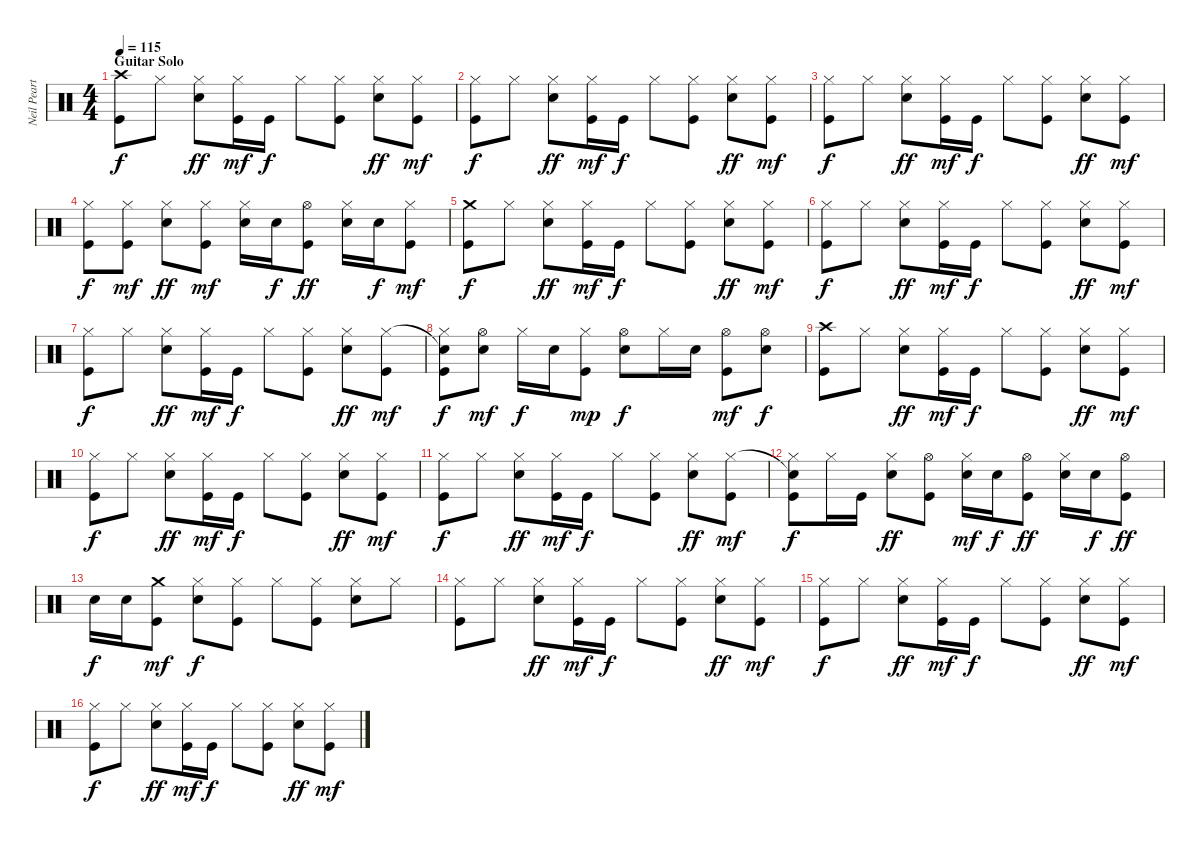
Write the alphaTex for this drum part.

\track ("Neil Peart - Drums" "Neil Peart") {instrument percussion}
\staff {score}
\articulation defaults
\ts (4 4)
\section ("" "Guitar Solo")
\tempo 115
\clef neutral
\ks c
("Crash high (hit)" "Kick (hit)").8{dy f} "Hi-Hat (closed)".8 ("Hi-Hat (closed)" "Electric Snare (hit)").8{dy ff} ("Hi-Hat (closed)" "Kick (hit)").16{dy mf} "Kick (hit)".16{dy f} "Hi-Hat (closed)".8 ("Hi-Hat (closed)" "Kick (hit)").8 ("Hi-Hat (closed)" "Electric Snare (hit)").8{dy ff} ("Hi-Hat (closed)" "Kick (hit)").8{dy mf} |
("Hi-Hat (closed)" "Kick (hit)").8{dy f} "Hi-Hat (closed)".8 ("Hi-Hat (closed)" "Electric Snare (hit)").8{dy ff} ("Hi-Hat (closed)" "Kick (hit)").16{dy mf} "Kick (hit)".16{dy f} "Hi-Hat (closed)".8 ("Hi-Hat (closed)" "Kick (hit)").8 ("Hi-Hat (closed)" "Electric Snare (hit)").8{dy ff} ("Hi-Hat (closed)" "Kick (hit)").8{dy mf} |
("Hi-Hat (closed)" "Kick (hit)").8{dy f} "Hi-Hat (closed)".8 ("Hi-Hat (closed)" "Electric Snare (hit)").8{dy ff} ("Hi-Hat (closed)" "Kick (hit)").16{dy mf} "Kick (hit)".16{dy f} "Hi-Hat (closed)".8 ("Hi-Hat (closed)" "Kick (hit)").8 ("Hi-Hat (closed)" "Electric Snare (hit)").8{dy ff} ("Hi-Hat (closed)" "Kick (hit)").8{dy mf} |
("Hi-Hat (closed)" "Kick (hit)").8{dy f} ("Hi-Hat (closed)" "Kick (hit)").8{dy mf} ("Hi-Hat (closed)" "Electric Snare (hit)").8{dy ff} ("Hi-Hat (closed)" "Kick (hit)").8{dy mf} ("Hi-Hat (closed)" "Electric Snare (hit)").16 "Electric Snare (hit)".16{dy f} ("Hi-Hat (open)" "Kick (hit)").8{dy ff} ("Hi-Hat (closed)" "Electric Snare (hit)").16 "Electric Snare (hit)".16{dy f} ("Hi-Hat (closed)" "Kick (hit)").8{dy mf} |
("Crash medium (hit)" "Kick (hit)").8{dy f} "Hi-Hat (closed)".8 ("Hi-Hat (closed)" "Electric Snare (hit)").8{dy ff} ("Hi-Hat (closed)" "Kick (hit)").16{dy mf} "Kick (hit)".16{dy f} "Hi-Hat (closed)".8 ("Hi-Hat (closed)" "Kick (hit)").8 ("Hi-Hat (closed)" "Electric Snare (hit)").8{dy ff} ("Hi-Hat (closed)" "Kick (hit)").8{dy mf} |
("Hi-Hat (closed)" "Kick (hit)").8{dy f} "Hi-Hat (closed)".8 ("Hi-Hat (closed)" "Electric Snare (hit)").8{dy ff} ("Hi-Hat (closed)" "Kick (hit)").16{dy mf} "Kick (hit)".16{dy f} "Hi-Hat (closed)".8 ("Hi-Hat (closed)" "Kick (hit)").8 ("Hi-Hat (closed)" "Electric Snare (hit)").8{dy ff} ("Hi-Hat (closed)" "Kick (hit)").8{dy mf} |
("Hi-Hat (closed)" "Kick (hit)").8{dy f} "Hi-Hat (closed)".8 ("Hi-Hat (closed)" "Electric Snare (hit)").8{dy ff} ("Hi-Hat (closed)" "Kick (hit)").16{dy mf} "Kick (hit)".16{dy f} "Hi-Hat (closed)".8 ("Hi-Hat (closed)" "Kick (hit)").8 ("Hi-Hat (closed)" "Electric Snare (hit)").8{dy ff} ("Hi-Hat (closed)" "Kick (hit)").8{dy mf} |
("Snare (hit)"{t} "Hi-Hat (closed)" "Kick (hit)").8{dy f} ("Hi-Hat (open)" "Electric Snare (hit)").8{dy mf} "Hi-Hat (closed)".16{dy f} "Electric Snare (hit)".16 ("Hi-Hat (closed)" "Kick (hit)").8{dy mp} ("Hi-Hat (open)" "Electric Snare (hit)").8{dy f} "Hi-Hat (closed)".16 "Electric Snare (hit)".16 ("Hi-Hat (open)" "Kick (hit)").8{dy mf} ("Hi-Hat (open)" "Electric Snare (hit)").8{dy f} |
("Crash high (hit)" "Kick (hit)").8 "Hi-Hat (closed)".8 ("Hi-Hat (closed)" "Electric Snare (hit)").8{dy ff} ("Hi-Hat (closed)" "Kick (hit)").16{dy mf} "Kick (hit)".16{dy f} "Hi-Hat (closed)".8 ("Hi-Hat (closed)" "Kick (hit)").8 ("Hi-Hat (closed)" "Electric Snare (hit)").8{dy ff} ("Hi-Hat (closed)" "Kick (hit)").8{dy mf} |
("Hi-Hat (closed)" "Kick (hit)").8{dy f} "Hi-Hat (closed)".8 ("Hi-Hat (closed)" "Electric Snare (hit)").8{dy ff} ("Hi-Hat (closed)" "Kick (hit)").16{dy mf} "Kick (hit)".16{dy f} "Hi-Hat (closed)".8 ("Hi-Hat (closed)" "Kick (hit)").8 ("Hi-Hat (closed)" "Electric Snare (hit)").8{dy ff} ("Hi-Hat (closed)" "Kick (hit)").8{dy mf} |
("Hi-Hat (closed)" "Kick (hit)").8{dy f} "Hi-Hat (closed)".8 ("Hi-Hat (closed)" "Electric Snare (hit)").8{dy ff} ("Hi-Hat (closed)" "Kick (hit)").16{dy mf} "Kick (hit)".16{dy f} "Hi-Hat (closed)".8 ("Hi-Hat (closed)" "Kick (hit)").8 ("Hi-Hat (closed)" "Electric Snare (hit)").8{dy ff} ("Hi-Hat (closed)" "Kick (hit)").8{dy mf} |
("Snare (hit)"{t} "Hi-Hat (closed)" "Kick (hit)").8{dy f} "Hi-Hat (closed)".16 "Kick (hit)".16 ("Hi-Hat (closed)" "Electric Snare (hit)").8{dy ff} ("Hi-Hat (open)" "Kick (hit)").8 ("Hi-Hat (closed)" "Electric Snare (hit)").16{dy mf} "Electric Snare (hit)".16{dy f} ("Hi-Hat (open)" "Kick (hit)").8{dy ff} ("Hi-Hat (closed)" "Electric Snare (hit)").16 "Electric Snare (hit)".16{dy f} ("Hi-Hat (open)" "Kick (hit)").8{dy ff} |
"Electric Snare (hit)".16{dy f} "Electric Snare (hit)".16 ("Crash medium (hit)" "Kick (hit)").8{dy mf} ("Hi-Hat (closed)" "Electric Snare (hit)").8{dy f} ("Hi-Hat (closed)" "Kick (hit)").8 "Hi-Hat (closed)".8 ("Hi-Hat (closed)" "Kick (hit)").8 ("Hi-Hat (closed)" "Electric Snare (hit)").8 "Hi-Hat (closed)".8 |
("Hi-Hat (closed)" "Kick (hit)").8 "Hi-Hat (closed)".8 ("Hi-Hat (closed)" "Electric Snare (hit)").8{dy ff} ("Hi-Hat (closed)" "Kick (hit)").16{dy mf} "Kick (hit)".16{dy f} "Hi-Hat (closed)".8 ("Hi-Hat (closed)" "Kick (hit)").8 ("Hi-Hat (closed)" "Electric Snare (hit)").8{dy ff} ("Hi-Hat (closed)" "Kick (hit)").8{dy mf} |
("Hi-Hat (closed)" "Kick (hit)").8{dy f} "Hi-Hat (closed)".8 ("Hi-Hat (closed)" "Electric Snare (hit)").8{dy ff} ("Hi-Hat (closed)" "Kick (hit)").16{dy mf} "Kick (hit)".16{dy f} "Hi-Hat (closed)".8 ("Hi-Hat (closed)" "Kick (hit)").8 ("Hi-Hat (closed)" "Electric Snare (hit)").8{dy ff} ("Hi-Hat (closed)" "Kick (hit)").8{dy mf} |
("Hi-Hat (closed)" "Kick (hit)").8{dy f} "Hi-Hat (closed)".8 ("Hi-Hat (closed)" "Electric Snare (hit)").8{dy ff} ("Hi-Hat (closed)" "Kick (hit)").16{dy mf} "Kick (hit)".16{dy f} "Hi-Hat (closed)".8 ("Hi-Hat (closed)" "Kick (hit)").8 ("Hi-Hat (closed)" "Electric Snare (hit)").8{dy ff} ("Hi-Hat (closed)" "Kick (hit)").8{dy mf}
